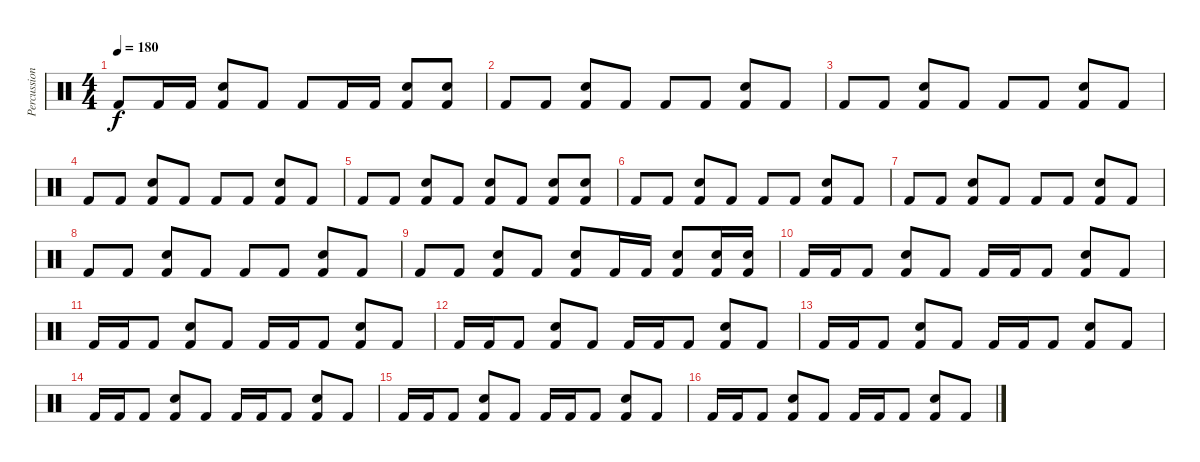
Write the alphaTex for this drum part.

\track ("Percussion" "Percussion") {instrument percussion}
\staff {score}
\articulation defaults
\ts (4 4)
\tempo 180
\clef neutral
\ks c "Kick (hit) 2".8{dy f} "Kick (hit) 2".16 "Kick (hit) 2".16
("Kick (hit) 2" "Snare (hit) 2").8 "Kick (hit) 2".8 "Kick (hit) 2".8 "Kick (hit) 2".16 "Kick (hit) 2".16 ("Kick (hit) 2" "Snare (hit) 2").8 ("Kick (hit) 2" "Snare (hit) 2").8 |
"Kick (hit) 2".8 "Kick (hit) 2".8 ("Kick (hit) 2" "Snare (hit) 2").8 "Kick (hit) 2".8 "Kick (hit) 2".8 "Kick (hit) 2".8 ("Kick (hit) 2" "Snare (hit) 2").8 "Kick (hit) 2".8 |
"Kick (hit) 2".8 "Kick (hit) 2".8 ("Kick (hit) 2" "Snare (hit) 2").8 "Kick (hit) 2".8 "Kick (hit) 2".8 "Kick (hit) 2".8 ("Kick (hit) 2" "Snare (hit) 2").8 "Kick (hit) 2".8 |
"Kick (hit) 2".8 "Kick (hit) 2".8 ("Kick (hit) 2" "Snare (hit) 2").8 "Kick (hit) 2".8 "Kick (hit) 2".8 "Kick (hit) 2".8 ("Kick (hit) 2" "Snare (hit) 2").8 "Kick (hit) 2".8 |
"Kick (hit) 2".8 "Kick (hit) 2".8 ("Kick (hit) 2" "Snare (hit) 2").8 "Kick (hit) 2".8 ("Kick (hit) 2" "Snare (hit) 2").8 "Kick (hit) 2".8 ("Kick (hit) 2" "Snare (hit) 2").8 ("Kick (hit) 2" "Snare (hit) 2").8 |
"Kick (hit) 2".8 "Kick (hit) 2".8 ("Kick (hit) 2" "Snare (hit) 2").8 "Kick (hit) 2".8 "Kick (hit) 2".8 "Kick (hit) 2".8 ("Kick (hit) 2" "Snare (hit) 2").8 "Kick (hit) 2".8 |
"Kick (hit) 2".8 "Kick (hit) 2".8 ("Kick (hit) 2" "Snare (hit) 2").8 "Kick (hit) 2".8 "Kick (hit) 2".8 "Kick (hit) 2".8 ("Kick (hit) 2" "Snare (hit) 2").8 "Kick (hit) 2".8 |
"Kick (hit) 2".8 "Kick (hit) 2".8 ("Kick (hit) 2" "Snare (hit) 2").8 "Kick (hit) 2".8 "Kick (hit) 2".8 "Kick (hit) 2".8 ("Kick (hit) 2" "Snare (hit) 2").8 "Kick (hit) 2".8 |
"Kick (hit) 2".8 "Kick (hit) 2".8 ("Kick (hit) 2" "Snare (hit) 2").8 "Kick (hit) 2".8 ("Kick (hit) 2" "Snare (hit) 2").8 "Kick (hit) 2".16 "Kick (hit) 2".16 ("Kick (hit) 2" "Snare (hit) 2").8 ("Kick (hit) 2" "Snare (hit) 2").16 ("Kick (hit) 2" "Snare (hit) 2").16 |
"Kick (hit) 2".16 "Kick (hit) 2".16 "Kick (hit) 2".8 ("Kick (hit) 2" "Snare (hit) 2").8 "Kick (hit) 2".8 "Kick (hit) 2".16 "Kick (hit) 2".16 "Kick (hit) 2".8 ("Kick (hit) 2" "Snare (hit) 2").8 "Kick (hit) 2".8 |
"Kick (hit) 2".16 "Kick (hit) 2".16 "Kick (hit) 2".8 ("Kick (hit) 2" "Snare (hit) 2").8 "Kick (hit) 2".8 "Kick (hit) 2".16 "Kick (hit) 2".16 "Kick (hit) 2".8 ("Kick (hit) 2" "Snare (hit) 2").8 "Kick (hit) 2".8 |
"Kick (hit) 2".16 "Kick (hit) 2".16 "Kick (hit) 2".8 ("Kick (hit) 2" "Snare (hit) 2").8 "Kick (hit) 2".8 "Kick (hit) 2".16 "Kick (hit) 2".16 "Kick (hit) 2".8 ("Kick (hit) 2" "Snare (hit) 2").8 "Kick (hit) 2".8 |
"Kick (hit) 2".16 "Kick (hit) 2".16 "Kick (hit) 2".8 ("Kick (hit) 2" "Snare (hit) 2").8 "Kick (hit) 2".8 "Kick (hit) 2".16 "Kick (hit) 2".16 "Kick (hit) 2".8 ("Kick (hit) 2" "Snare (hit) 2").8 "Kick (hit) 2".8 |
"Kick (hit) 2".16 "Kick (hit) 2".16 "Kick (hit) 2".8 ("Kick (hit) 2" "Snare (hit) 2").8 "Kick (hit) 2".8 "Kick (hit) 2".16 "Kick (hit) 2".16 "Kick (hit) 2".8 ("Kick (hit) 2" "Snare (hit) 2").8 "Kick (hit) 2".8 |
"Kick (hit) 2".16 "Kick (hit) 2".16 "Kick (hit) 2".8 ("Kick (hit) 2" "Snare (hit) 2").8 "Kick (hit) 2".8 "Kick (hit) 2".16 "Kick (hit) 2".16 "Kick (hit) 2".8 ("Kick (hit) 2" "Snare (hit) 2").8 "Kick (hit) 2".8 |
"Kick (hit) 2".16 "Kick (hit) 2".16 "Kick (hit) 2".8 ("Kick (hit) 2" "Snare (hit) 2").8 "Kick (hit) 2".8 "Kick (hit) 2".16 "Kick (hit) 2".16 "Kick (hit) 2".8 ("Kick (hit) 2" "Snare (hit) 2").8 "Kick (hit) 2".8
